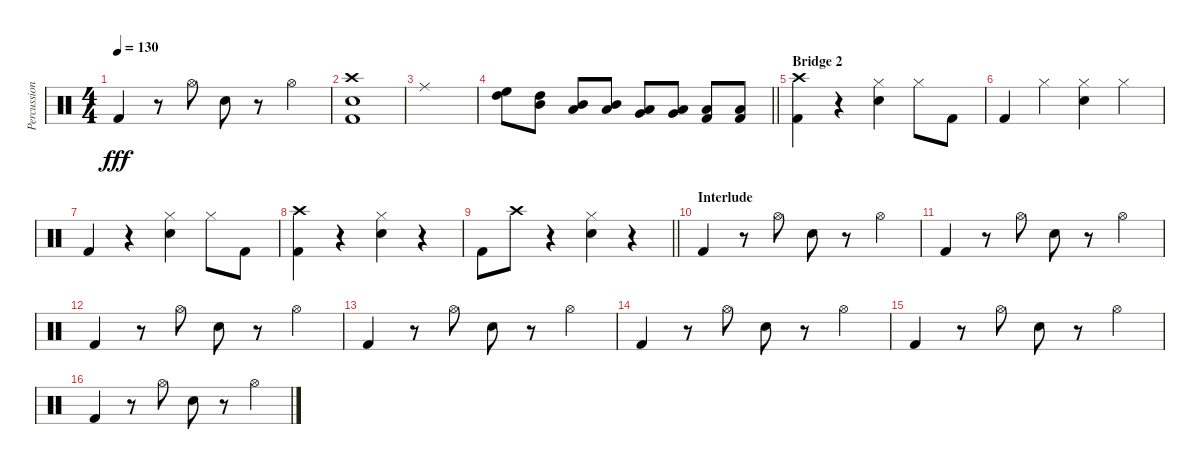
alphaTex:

\track ("Percussion" "Percussion") {instrument percussion}
\staff {score}
\articulation defaults
\ts (4 4)
\tempo 130
\clef neutral
\ks c "Kick (hit) 2".4{dy fff}
r.8 "Hi-Hat (open)".8 "Snare (hit) 2".8 r.8 "Hi-Hat (open)".4 |
("Crash high (hit)" "Snare (hit) 2" "Kick (hit) 2").1 |
"Ride (middle)".1 |
\barLineRight lightlight
("High Floor Tom (hit)" "High Tom (hit)").8 ("High Tom (hit)" "Mid Tom (hit)").8 ("Mid Tom (hit)" "Low Tom (hit)").8 ("Mid Tom (hit)" "Low Tom (hit)").8 ("Low Tom (hit)" "Very Low Tom (hit)").8 ("Very Low Tom (hit)" "Low Floor Tom (hit)").8 ("Low Floor Tom (hit)" "Kick (hit) 2").8 ("Low Floor Tom (hit)" "Kick (hit) 2").8 |
\section ("" "Bridge 2")
("Crash high (hit)" "Kick (hit) 2").4 r.4 ("Hi-Hat (closed)" "Snare (hit) 2").4 "Hi-Hat (closed)".8 "Kick (hit) 2".8 |
"Kick (hit) 2".4 "Hi-Hat (closed)".4 ("Hi-Hat (closed)" "Snare (hit) 2").4 "Hi-Hat (closed)".4 |
"Kick (hit) 2".4 r.4 ("Hi-Hat (closed)" "Snare (hit) 2").4 "Hi-Hat (closed)".8 "Kick (hit) 2".8 |
("Crash high (hit)" "Kick (hit) 2").4 r.4 ("Hi-Hat (closed)" "Snare (hit) 2").4 r.4 |
\barLineRight lightlight "Kick (hit) 2".8 "Crash high (hit)".8
r.4 ("Hi-Hat (closed)" "Snare (hit) 2").4 r.4 |
\section ("" "Interlude")
"Kick (hit) 2".4 r.8 "Hi-Hat (open)".8 "Snare (hit) 2".8 r.8 "Hi-Hat (open)".4 |
"Kick (hit) 2".4 r.8 "Hi-Hat (open)".8 "Snare (hit) 2".8 r.8 "Hi-Hat (open)".4 |
"Kick (hit) 2".4 r.8 "Hi-Hat (open)".8 "Snare (hit) 2".8 r.8 "Hi-Hat (open)".4 |
"Kick (hit) 2".4 r.8 "Hi-Hat (open)".8 "Snare (hit) 2".8 r.8 "Hi-Hat (open)".4 |
"Kick (hit) 2".4 r.8 "Hi-Hat (open)".8 "Snare (hit) 2".8 r.8 "Hi-Hat (open)".4 |
"Kick (hit) 2".4 r.8 "Hi-Hat (open)".8 "Snare (hit) 2".8 r.8 "Hi-Hat (open)".4 |
"Kick (hit) 2".4 r.8 "Hi-Hat (open)".8 "Snare (hit) 2".8 r.8 "Hi-Hat (open)".4
